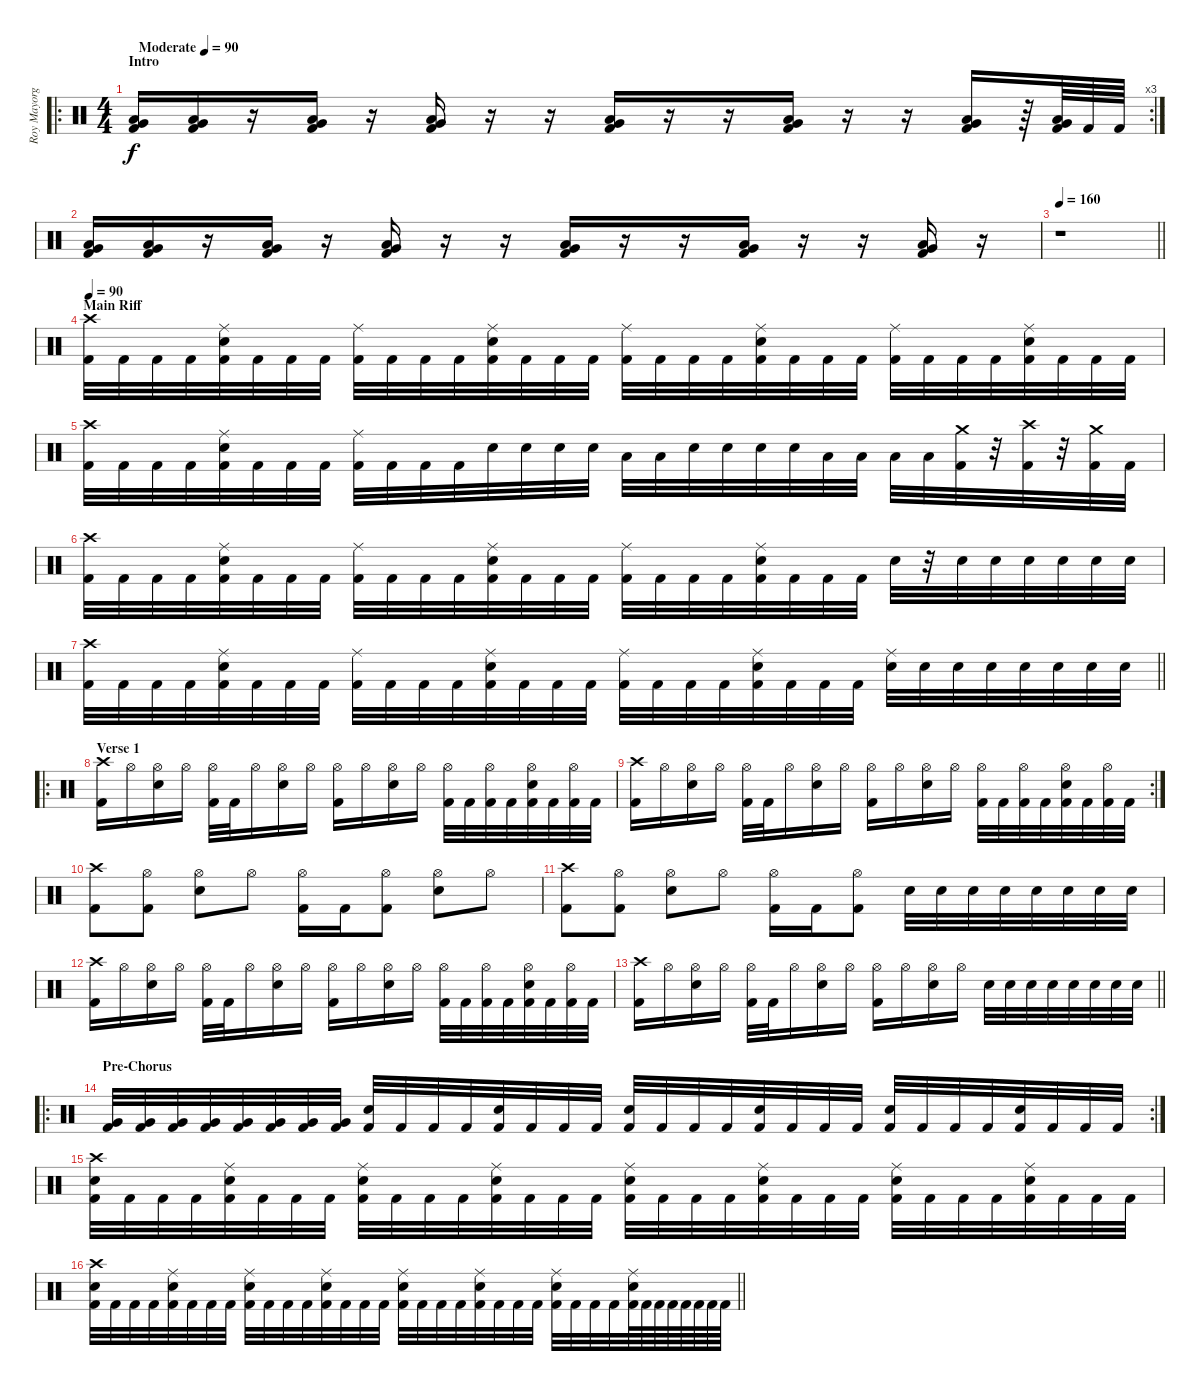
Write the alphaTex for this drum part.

\track ("Roy Mayorga" "Roy Mayorg") {instrument percussion}
\staff {score}
\articulation defaults
\ro
\rc 3
\ts (4 4)
\section ("" "Intro")
\tempo (90 "Moderate")
\clef neutral
\ks c
("Kick (hit) 2" "Low Tom (hit)" "Very Low Tom (hit)").16{dy f} ("Kick (hit) 2" "Low Tom (hit)" "Very Low Tom (hit)").16 r.16 ("Kick (hit) 2" "Low Tom (hit)" "Very Low Tom (hit)").16 r.16 ("Kick (hit) 2" "Low Tom (hit)" "Very Low Tom (hit)").16 r.16 r.16 ("Kick (hit) 2" "Low Tom (hit)" "Very Low Tom (hit)").16 r.16 r.16 ("Kick (hit) 2" "Low Tom (hit)" "Very Low Tom (hit)").16 r.16 r.16 ("Kick (hit) 2" "Low Tom (hit)" "Very Low Tom (hit)").16 r.64 ("Kick (hit) 2" "Low Tom (hit)" "Very Low Tom (hit)").64 "Kick (hit) 2".64 "Kick (hit) 2".64 |
("Kick (hit) 2" "Low Tom (hit)" "Very Low Tom (hit)").16 ("Kick (hit) 2" "Low Tom (hit)" "Very Low Tom (hit)").16 r.16 ("Kick (hit) 2" "Low Tom (hit)" "Very Low Tom (hit)").16 r.16 ("Kick (hit) 2" "Low Tom (hit)" "Very Low Tom (hit)").16 r.16 r.16 ("Kick (hit) 2" "Low Tom (hit)" "Very Low Tom (hit)").16 r.16 r.16 ("Kick (hit) 2" "Low Tom (hit)" "Very Low Tom (hit)").16 r.16 r.16 ("Kick (hit) 2" "Low Tom (hit)" "Very Low Tom (hit)").16 r.16 |
\tempo 160
\barLineRight lightlight
r.1{volume 15} |
\section ("" "Main Riff")
\tempo 90
("Kick (hit) 2" "Crash high (hit)").32 "Kick (hit) 2".32 "Kick (hit) 2".32 "Kick (hit) 2".32 ("Kick (hit) 2" "Electric Snare (hit)" "Ride (middle)").32 "Kick (hit) 2".32 "Kick (hit) 2".32 "Kick (hit) 2".32 ("Kick (hit) 2" "Ride (middle)").32 "Kick (hit) 2".32 "Kick (hit) 2".32 "Kick (hit) 2".32 ("Kick (hit) 2" "Electric Snare (hit)" "Ride (middle)").32 "Kick (hit) 2".32 "Kick (hit) 2".32 "Kick (hit) 2".32 ("Kick (hit) 2" "Ride (middle)").32 "Kick (hit) 2".32 "Kick (hit) 2".32 "Kick (hit) 2".32 ("Kick (hit) 2" "Electric Snare (hit)" "Ride (middle)").32 "Kick (hit) 2".32 "Kick (hit) 2".32 "Kick (hit) 2".32 ("Kick (hit) 2" "Ride (middle)").32 "Kick (hit) 2".32 "Kick (hit) 2".32 "Kick (hit) 2".32 ("Kick (hit) 2" "Electric Snare (hit)" "Ride (middle)").32 "Kick (hit) 2".32 "Kick (hit) 2".32 "Kick (hit) 2".32 |
("Kick (hit) 2" "Crash high (hit)").32 "Kick (hit) 2".32 "Kick (hit) 2".32 "Kick (hit) 2".32 ("Kick (hit) 2" "Electric Snare (hit)" "Ride (middle)").32 "Kick (hit) 2".32 "Kick (hit) 2".32 "Kick (hit) 2".32 ("Kick (hit) 2" "Ride (middle)").32 "Kick (hit) 2".32 "Kick (hit) 2".32 "Kick (hit) 2".32 "Electric Snare (hit)".32 "Electric Snare (hit)".32 "Electric Snare (hit)".32 "Electric Snare (hit)".32 "Low Tom (hit)".32 "Low Tom (hit)".32 "Electric Snare (hit)".32 "Electric Snare (hit)".32 "Electric Snare (hit)".32 "Electric Snare (hit)".32 "Low Tom (hit)".32 "Low Tom (hit)".32 "Low Tom (hit)".32 "Low Tom (hit)".32 ("Kick (hit) 2" "Crash medium (hit)").32 r.32 ("Kick (hit) 2" "Crash high (hit)").32 r.32 ("Kick (hit) 2" "Crash medium (hit)").32 "Kick (hit) 2".32 |
("Kick (hit) 2" "Crash high (hit)").32 "Kick (hit) 2".32 "Kick (hit) 2".32 "Kick (hit) 2".32 ("Kick (hit) 2" "Electric Snare (hit)" "Ride (middle)").32 "Kick (hit) 2".32 "Kick (hit) 2".32 "Kick (hit) 2".32 ("Kick (hit) 2" "Ride (middle)").32 "Kick (hit) 2".32 "Kick (hit) 2".32 "Kick (hit) 2".32 ("Kick (hit) 2" "Electric Snare (hit)" "Ride (middle)").32 "Kick (hit) 2".32 "Kick (hit) 2".32 "Kick (hit) 2".32 ("Kick (hit) 2" "Ride (middle)").32 "Kick (hit) 2".32 "Kick (hit) 2".32 "Kick (hit) 2".32 ("Kick (hit) 2" "Electric Snare (hit)" "Ride (middle)").32 "Kick (hit) 2".32 "Kick (hit) 2".32 "Kick (hit) 2".32 "Electric Snare (hit)".32 r.32 "Electric Snare (hit)".32 "Electric Snare (hit)".32 "Electric Snare (hit)".32 "Electric Snare (hit)".32 "Electric Snare (hit)".32 "Electric Snare (hit)".32 |
\barLineRight lightlight
("Kick (hit) 2" "Crash high (hit)").32 "Kick (hit) 2".32 "Kick (hit) 2".32 "Kick (hit) 2".32 ("Kick (hit) 2" "Electric Snare (hit)" "Ride (middle)").32 "Kick (hit) 2".32 "Kick (hit) 2".32 "Kick (hit) 2".32 ("Kick (hit) 2" "Ride (middle)").32 "Kick (hit) 2".32 "Kick (hit) 2".32 "Kick (hit) 2".32 ("Kick (hit) 2" "Electric Snare (hit)" "Ride (middle)").32 "Kick (hit) 2".32 "Kick (hit) 2".32 "Kick (hit) 2".32 ("Kick (hit) 2" "Ride (middle)").32 "Kick (hit) 2".32 "Kick (hit) 2".32 "Kick (hit) 2".32 ("Kick (hit) 2" "Electric Snare (hit)" "Ride (middle)").32 "Kick (hit) 2".32 "Kick (hit) 2".32 "Kick (hit) 2".32 ("Electric Snare (hit)" "Ride (middle)").32 "Electric Snare (hit)".32 "Electric Snare (hit)".32 "Electric Snare (hit)".32 "Electric Snare (hit)".32 "Electric Snare (hit)".32 "Electric Snare (hit)".32 "Electric Snare (hit)".32 |
\ro
\section ("" "Verse 1")
("Kick (hit) 2" "Crash high (hit)").16 "Hi-Hat (open)".16 ("Electric Snare (hit)" "Hi-Hat (open)").16 "Hi-Hat (open)".16 ("Kick (hit) 2" "Hi-Hat (open)").32 "Kick (hit) 2".32 "Hi-Hat (open)".16 ("Electric Snare (hit)" "Hi-Hat (open)").16 "Hi-Hat (open)".16 ("Kick (hit) 2" "Hi-Hat (open)").16 "Hi-Hat (open)".16 ("Electric Snare (hit)" "Hi-Hat (open)").16 "Hi-Hat (open)".16 ("Kick (hit) 2" "Hi-Hat (open)").32 "Kick (hit) 2".32 ("Kick (hit) 2" "Hi-Hat (open)").32 "Kick (hit) 2".32 ("Kick (hit) 2" "Electric Snare (hit)" "Hi-Hat (open)").32 "Kick (hit) 2".32 ("Kick (hit) 2" "Hi-Hat (open)").32 "Kick (hit) 2".32 |
\rc 2
("Kick (hit) 2" "Crash high (hit)").16 "Hi-Hat (open)".16 ("Electric Snare (hit)" "Hi-Hat (open)").16 "Hi-Hat (open)".16 ("Kick (hit) 2" "Hi-Hat (open)").32 "Kick (hit) 2".32 "Hi-Hat (open)".16 ("Electric Snare (hit)" "Hi-Hat (open)").16 "Hi-Hat (open)".16 ("Kick (hit) 2" "Hi-Hat (open)").16 "Hi-Hat (open)".16 ("Electric Snare (hit)" "Hi-Hat (open)").16 "Hi-Hat (open)".16 ("Kick (hit) 2" "Hi-Hat (open)").32 "Kick (hit) 2".32 ("Kick (hit) 2" "Hi-Hat (open)").32 "Kick (hit) 2".32 ("Kick (hit) 2" "Electric Snare (hit)" "Hi-Hat (open)").32 "Kick (hit) 2".32 ("Kick (hit) 2" "Hi-Hat (open)").32 "Kick (hit) 2".32 |
("Kick (hit) 2" "Crash high (hit)").8 ("Kick (hit) 2" "Hi-Hat (open)").8 ("Electric Snare (hit)" "Hi-Hat (open)").8 "Hi-Hat (open)".8 ("Kick (hit) 2" "Hi-Hat (open)").16 "Kick (hit) 2".16 ("Kick (hit) 2" "Hi-Hat (open)").8 ("Electric Snare (hit)" "Hi-Hat (open)").8 "Hi-Hat (open)".8 |
("Kick (hit) 2" "Crash high (hit)").8 ("Kick (hit) 2" "Hi-Hat (open)").8 ("Electric Snare (hit)" "Hi-Hat (open)").8 "Hi-Hat (open)".8 ("Kick (hit) 2" "Hi-Hat (open)").16 "Kick (hit) 2".16 ("Kick (hit) 2" "Hi-Hat (open)").8 "Electric Snare (hit)".32 "Electric Snare (hit)".32 "Electric Snare (hit)".32 "Electric Snare (hit)".32 "Electric Snare (hit)".32 "Electric Snare (hit)".32 "Electric Snare (hit)".32 "Electric Snare (hit)".32 |
("Kick (hit) 2" "Crash high (hit)").16 "Hi-Hat (open)".16 ("Electric Snare (hit)" "Hi-Hat (open)").16 "Hi-Hat (open)".16 ("Kick (hit) 2" "Hi-Hat (open)").32 "Kick (hit) 2".32 "Hi-Hat (open)".16 ("Electric Snare (hit)" "Hi-Hat (open)").16 "Hi-Hat (open)".16 ("Kick (hit) 2" "Hi-Hat (open)").16 "Hi-Hat (open)".16 ("Electric Snare (hit)" "Hi-Hat (open)").16 "Hi-Hat (open)".16 ("Kick (hit) 2" "Hi-Hat (open)").32 "Kick (hit) 2".32 ("Kick (hit) 2" "Hi-Hat (open)").32 "Kick (hit) 2".32 ("Kick (hit) 2" "Electric Snare (hit)" "Hi-Hat (open)").32 "Kick (hit) 2".32 ("Kick (hit) 2" "Hi-Hat (open)").32 "Kick (hit) 2".32 |
\barLineRight lightlight
("Kick (hit) 2" "Crash high (hit)").16 "Hi-Hat (open)".16 ("Electric Snare (hit)" "Hi-Hat (open)").16 "Hi-Hat (open)".16 ("Kick (hit) 2" "Hi-Hat (open)").32 "Kick (hit) 2".32 "Hi-Hat (open)".16 ("Electric Snare (hit)" "Hi-Hat (open)").16 "Hi-Hat (open)".16 ("Kick (hit) 2" "Hi-Hat (open)").16 "Hi-Hat (open)".16 ("Electric Snare (hit)" "Hi-Hat (open)").16 "Hi-Hat (open)".16 "Electric Snare (hit)".32 "Electric Snare (hit)".32 "Electric Snare (hit)".32 "Electric Snare (hit)".32 "Electric Snare (hit)".32 "Electric Snare (hit)".32 "Electric Snare (hit)".32 "Electric Snare (hit)".32 |
\ro
\rc 2
\section ("" "Pre-Chorus")
("Kick (hit) 2" "Very Low Tom (hit)").32 ("Kick (hit) 2" "Very Low Tom (hit)").32 ("Kick (hit) 2" "Very Low Tom (hit)").32 ("Kick (hit) 2" "Very Low Tom (hit)").32 ("Kick (hit) 2" "Very Low Tom (hit)").32 ("Kick (hit) 2" "Very Low Tom (hit)").32 ("Kick (hit) 2" "Very Low Tom (hit)").32 ("Kick (hit) 2" "Very Low Tom (hit)").32 ("Kick (hit) 2" "Electric Snare (hit)").32 "Kick (hit) 2".32 "Kick (hit) 2".32 "Kick (hit) 2".32 ("Kick (hit) 2" "Electric Snare (hit)").32 "Kick (hit) 2".32 "Kick (hit) 2".32 "Kick (hit) 2".32 ("Kick (hit) 2" "Electric Snare (hit)").32 "Kick (hit) 2".32 "Kick (hit) 2".32 "Kick (hit) 2".32 ("Kick (hit) 2" "Electric Snare (hit)").32 "Kick (hit) 2".32 "Kick (hit) 2".32 "Kick (hit) 2".32 ("Kick (hit) 2" "Electric Snare (hit)").32 "Kick (hit) 2".32 "Kick (hit) 2".32 "Kick (hit) 2".32 ("Kick (hit) 2" "Electric Snare (hit)").32 "Kick (hit) 2".32 "Kick (hit) 2".32 "Kick (hit) 2".32 |
("Kick (hit) 2" "Electric Snare (hit)" "Crash high (hit)").32 "Kick (hit) 2".32 "Kick (hit) 2".32 "Kick (hit) 2".32 ("Kick (hit) 2" "Electric Snare (hit)" "Ride (middle)").32 "Kick (hit) 2".32 "Kick (hit) 2".32 "Kick (hit) 2".32 ("Kick (hit) 2" "Electric Snare (hit)" "Ride (middle)").32 "Kick (hit) 2".32 "Kick (hit) 2".32 "Kick (hit) 2".32 ("Kick (hit) 2" "Electric Snare (hit)" "Ride (middle)").32 "Kick (hit) 2".32 "Kick (hit) 2".32 "Kick (hit) 2".32 ("Kick (hit) 2" "Electric Snare (hit)" "Ride (middle)").32 "Kick (hit) 2".32 "Kick (hit) 2".32 "Kick (hit) 2".32 ("Kick (hit) 2" "Electric Snare (hit)" "Ride (middle)").32 "Kick (hit) 2".32 "Kick (hit) 2".32 "Kick (hit) 2".32 ("Kick (hit) 2" "Electric Snare (hit)" "Ride (middle)").32 "Kick (hit) 2".32 "Kick (hit) 2".32 "Kick (hit) 2".32 ("Kick (hit) 2" "Electric Snare (hit)" "Ride (middle)").32 "Kick (hit) 2".32 "Kick (hit) 2".32 "Kick (hit) 2".32 |
\barLineRight lightlight
("Kick (hit) 2" "Electric Snare (hit)" "Crash high (hit)").32 "Kick (hit) 2".32 "Kick (hit) 2".32 "Kick (hit) 2".32 ("Kick (hit) 2" "Electric Snare (hit)" "Ride (middle)").32 "Kick (hit) 2".32 "Kick (hit) 2".32 "Kick (hit) 2".32 ("Kick (hit) 2" "Electric Snare (hit)" "Ride (middle)").32 "Kick (hit) 2".32 "Kick (hit) 2".32 "Kick (hit) 2".32 ("Kick (hit) 2" "Electric Snare (hit)" "Ride (middle)").32 "Kick (hit) 2".32 "Kick (hit) 2".32 "Kick (hit) 2".32 ("Kick (hit) 2" "Electric Snare (hit)" "Ride (middle)").32 "Kick (hit) 2".32 "Kick (hit) 2".32 "Kick (hit) 2".32 ("Kick (hit) 2" "Electric Snare (hit)" "Ride (middle)").32 "Kick (hit) 2".32 "Kick (hit) 2".32 "Kick (hit) 2".32 ("Kick (hit) 2" "Electric Snare (hit)" "Ride (middle)").32 "Kick (hit) 2".32 "Kick (hit) 2".32 "Kick (hit) 2".32 ("Kick (hit) 2" "Electric Snare (hit)" "Ride (middle)").64 "Kick (hit) 2".64 "Kick (hit) 2".64 "Kick (hit) 2".64 "Kick (hit) 2".64 "Kick (hit) 2".64 "Kick (hit) 2".64 "Kick (hit) 2".64
